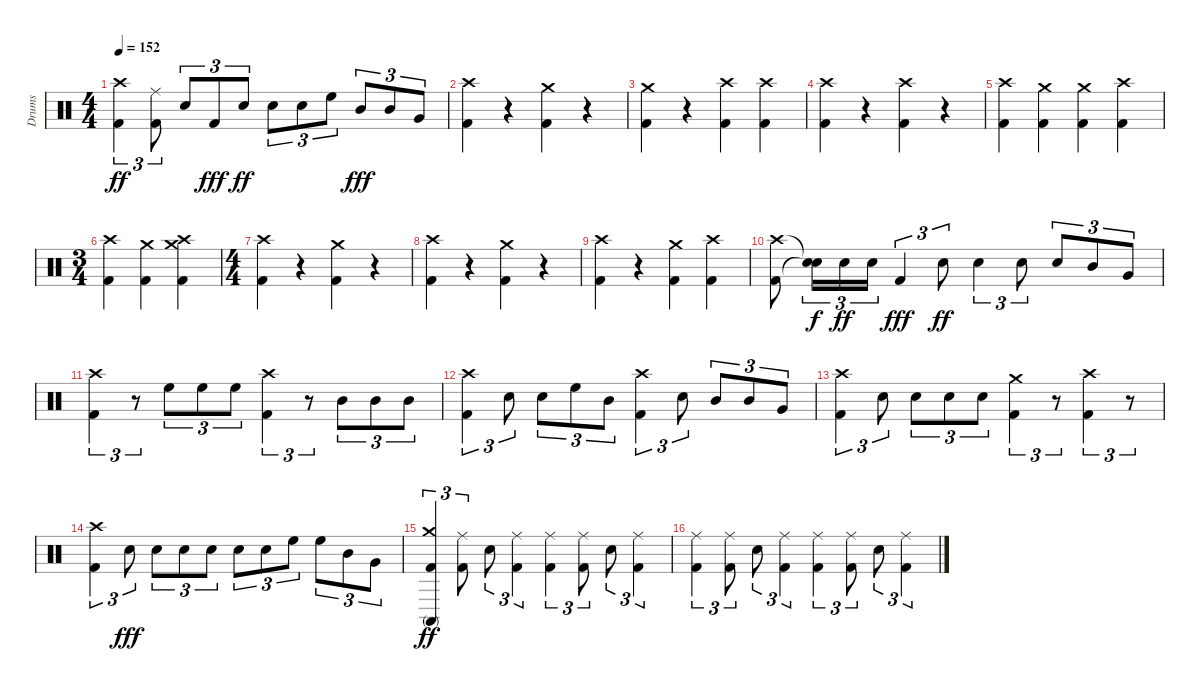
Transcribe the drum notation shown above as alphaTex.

\track ("Drums" "Drums") {instrument percussion}
\staff {score}
\articulation defaults
\ts (4 4)
\tempo 152
\clef neutral
\ks c
("Kick (hit) 2" "Crash high (hit)").4{tu (3 2) dy ff} ("Kick (hit) 2" "Ride (middle)").8{tu (3 2)} "Snare (hit) 2".8{tu (3 2)} "Kick (hit) 2".8{tu (3 2) dy fff} "Snare (hit) 2".8{tu (3 2) dy ff} "Snare (hit) 2".8{tu (3 2)} "Snare (hit) 2".8{tu (3 2)} "High Floor Tom (hit)".8{tu (3 2)} "Mid Tom (hit)".8{tu (3 2) dy fff} "Mid Tom (hit)".8{tu (3 2)} "Very Low Tom (hit)".8{tu (3 2)} |
("Kick (hit) 2" "Crash high (hit)").4 r.4 ("Kick (hit) 2" "Crash medium (hit)").4 r.4 |
("Kick (hit) 2" "Crash medium (hit)").4 r.4 ("Kick (hit) 2" "Crash high (hit)").4 ("Kick (hit) 2" "Crash high (hit)").4 |
("Kick (hit) 2" "Crash high (hit)").4 r.4 ("Kick (hit) 2" "Crash high (hit)").4 r.4 |
("Kick (hit) 2" "Crash high (hit)").4 ("Kick (hit) 2" "Crash medium (hit)").4 ("Kick (hit) 2" "Crash medium (hit)").4 ("Kick (hit) 2" "Crash high (hit)").4 |
\ts (3 4)
("Kick (hit) 2" "Crash high (hit)").4 ("Kick (hit) 2" "Crash medium (hit)").4 ("Kick (hit) 2" "Crash high (hit)" "Crash medium (hit)").4 |
\ts (4 4)
("Kick (hit) 2" "Crash high (hit)").4 r.4 ("Kick (hit) 2" "Crash medium (hit)").4 r.4 |
("Kick (hit) 2" "Crash high (hit)").4 r.4 ("Kick (hit) 2" "Crash medium (hit)").4 r.4 |
("Kick (hit) 2" "Crash high (hit)").4 r.4 ("Kick (hit) 2" "Crash medium (hit)").4 ("Kick (hit) 2" "Crash high (hit)").4 |
("Kick (hit) 2" "Crash high (hit)").8 ("Snare (hit)"{t} "Snare (hit)"{t}).16{tu (3 2) dy f} "Snare (hit) 2".16{tu (3 2) dy ff} "Snare (hit) 2".16{tu (3 2)} "Kick (hit) 2".4{tu (3 2) dy fff} "Snare (hit) 2".8{tu (3 2) dy ff} "Snare (hit) 2".4{tu (3 2)} "Snare (hit) 2".8{tu (3 2)} "Snare (hit) 2".8{tu (3 2)} "Mid Tom (hit)".8{tu (3 2)} "Very Low Tom (hit)".8{tu (3 2)} |
("Kick (hit) 2" "Crash high (hit)").4{tu (3 2)} r.8{tu (3 2)} "High Floor Tom (hit)".8{tu (3 2)} "High Floor Tom (hit)".8{tu (3 2)} "High Floor Tom (hit)".8{tu (3 2)} ("Kick (hit) 2" "Crash high (hit)").4{tu (3 2)} r.8{tu (3 2)} "Mid Tom (hit)".8{tu (3 2)} "Mid Tom (hit)".8{tu (3 2)} "Mid Tom (hit)".8{tu (3 2)} |
("Kick (hit) 2" "Crash high (hit)").4{tu (3 2)} "Snare (hit) 2".8{tu (3 2)} "Snare (hit) 2".8{tu (3 2)} "High Floor Tom (hit)".8{tu (3 2)} "Mid Tom (hit)".8{tu (3 2)} ("Kick (hit) 2" "Crash high (hit)").4{tu (3 2)} "Snare (hit) 2".8{tu (3 2)} "Mid Tom (hit)".8{tu (3 2)} "Mid Tom (hit)".8{tu (3 2)} "Very Low Tom (hit)".8{tu (3 2)} |
("Kick (hit) 2" "Crash high (hit)").4{tu (3 2)} "Snare (hit) 2".8{tu (3 2)} "Snare (hit) 2".8{tu (3 2)} "Snare (hit) 2".8{tu (3 2)} "Snare (hit) 2".8{tu (3 2)} ("Kick (hit) 2" "Crash medium (hit)").4{tu (3 2)} r.8{tu (3 2)} ("Kick (hit) 2" "Crash high (hit)").4{tu (3 2)} r.8{tu (3 2)} |
("Kick (hit) 2" "Crash high (hit)").4{tu (3 2)} "Snare (hit) 2".8{tu (3 2) dy fff} "Snare (hit) 2".8{tu (3 2)} "Snare (hit) 2".8{tu (3 2)} "Snare (hit) 2".8{tu (3 2)} "Snare (hit) 2".8{tu (3 2)} "Snare (hit) 2".8{tu (3 2)} "High Floor Tom (hit)".8{tu (3 2)} "High Floor Tom (hit)".8{tu (3 2)} "Mid Tom (hit)".8{tu (3 2)} "Very Low Tom (hit)".8{tu (3 2)} |
("Conga high (mute)" "Kick (hit) 2" "Crash medium (hit)").4{tu (3 2) dy ff} ("Kick (hit) 2" "Ride (middle)").8{tu (3 2)} "Snare (hit) 2".8{tu (3 2)} ("Kick (hit) 2" "Ride (middle)").4{tu (3 2)} ("Kick (hit) 2" "Ride (middle)").4{tu (3 2)} ("Kick (hit) 2" "Ride (middle)").8{tu (3 2)} "Snare (hit) 2".8{tu (3 2)} ("Kick (hit) 2" "Ride (middle)").4{tu (3 2)} |
("Kick (hit) 2" "Ride (middle)").4{tu (3 2)} ("Kick (hit) 2" "Ride (middle)").8{tu (3 2)} "Snare (hit) 2".8{tu (3 2)} ("Kick (hit) 2" "Ride (middle)").4{tu (3 2)} ("Kick (hit) 2" "Ride (middle)").4{tu (3 2)} ("Kick (hit) 2" "Ride (middle)").8{tu (3 2)} "Snare (hit) 2".8{tu (3 2)} ("Kick (hit) 2" "Ride (middle)").4{tu (3 2)}
